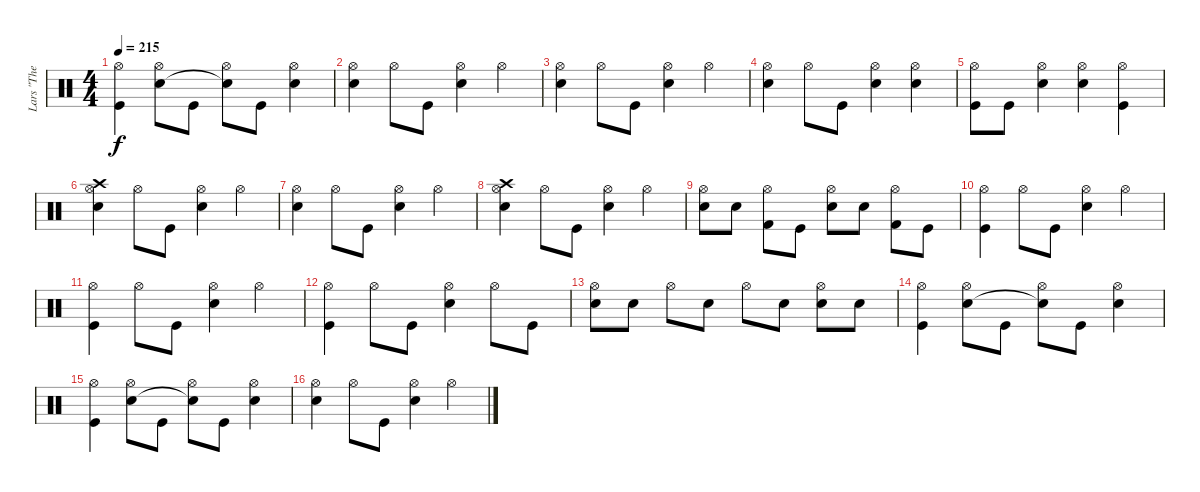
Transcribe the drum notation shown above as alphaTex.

\track ("Lars \"The Antichrist\" Ulrich" "Lars \"The ") {instrument percussion}
\staff {score}
\articulation defaults
\ts (4 4)
\tempo 215
\clef neutral
\ks c
("Hi-Hat (open)" "Kick (hit)").4{dy f} ("Hi-Hat (open)" "Electric Snare (hit)").8 "Kick (hit)".8 ("Hi-Hat (open)" "Snare (hit)"{t}).8 "Kick (hit)".8 ("Hi-Hat (open)" "Electric Snare (hit)").4 |
("Hi-Hat (open)" "Electric Snare (hit)").4 "Hi-Hat (open)".8 "Kick (hit)".8 ("Hi-Hat (open)" "Electric Snare (hit)").4 "Hi-Hat (open)".4 |
("Hi-Hat (open)" "Electric Snare (hit)").4 "Hi-Hat (open)".8 "Kick (hit)".8 ("Hi-Hat (open)" "Electric Snare (hit)").4 "Hi-Hat (open)".4 |
("Hi-Hat (open)" "Electric Snare (hit)").4 "Hi-Hat (open)".8 "Kick (hit)".8 ("Hi-Hat (open)" "Electric Snare (hit)").4 ("Hi-Hat (open)" "Electric Snare (hit)").4 |
("Hi-Hat (open)" "Kick (hit)").8 "Kick (hit)".8 ("Hi-Hat (open)" "Electric Snare (hit)").4 ("Hi-Hat (open)" "Electric Snare (hit)").4 ("Hi-Hat (open)" "Kick (hit)").4 |
("Hi-Hat (open)" "Crash high (hit)" "Electric Snare (hit)").4 "Hi-Hat (open)".8 "Kick (hit)".8 ("Hi-Hat (open)" "Electric Snare (hit)").4 "Hi-Hat (open)".4 |
("Hi-Hat (open)" "Electric Snare (hit)").4 "Hi-Hat (open)".8 "Kick (hit)".8 ("Hi-Hat (open)" "Electric Snare (hit)").4 "Hi-Hat (open)".4 |
("Hi-Hat (open)" "Crash high (hit)" "Electric Snare (hit)").4 "Hi-Hat (open)".8 "Kick (hit)".8 ("Hi-Hat (open)" "Electric Snare (hit)").4 "Hi-Hat (open)".4 |
("Hi-Hat (open)" "Electric Snare (hit)").8 "Electric Snare (hit)".8 ("Hi-Hat (open)" "Kick (hit) 2").8 "Kick (hit)".8 ("Hi-Hat (open)" "Electric Snare (hit)").8 "Electric Snare (hit)".8 ("Hi-Hat (open)" "Kick (hit) 2").8 "Kick (hit)".8 |
("Hi-Hat (open)" "Kick (hit)").4 "Hi-Hat (open)".8 "Kick (hit)".8 ("Hi-Hat (open)" "Electric Snare (hit)").4 "Hi-Hat (open)".4 |
("Hi-Hat (open)" "Kick (hit)").4 "Hi-Hat (open)".8 "Kick (hit)".8 ("Hi-Hat (open)" "Electric Snare (hit)").4 "Hi-Hat (open)".4 |
("Hi-Hat (open)" "Kick (hit)").4 "Hi-Hat (open)".8 "Kick (hit)".8 ("Hi-Hat (open)" "Electric Snare (hit)").4 "Hi-Hat (open)".8 "Kick (hit)".8 |
("Hi-Hat (open)" "Electric Snare (hit)").8 "Electric Snare (hit)".8 "Hi-Hat (open)".8 "Electric Snare (hit)".8 "Hi-Hat (open)".8 "Electric Snare (hit)".8 ("Hi-Hat (open)" "Electric Snare (hit)").8 "Electric Snare (hit)".8 |
("Hi-Hat (open)" "Kick (hit)").4 ("Hi-Hat (open)" "Electric Snare (hit)").8 "Kick (hit)".8 ("Hi-Hat (open)" "Snare (hit)"{t}).8 "Kick (hit)".8 ("Hi-Hat (open)" "Electric Snare (hit)").4 |
("Hi-Hat (open)" "Kick (hit)").4 ("Hi-Hat (open)" "Electric Snare (hit)").8 "Kick (hit)".8 ("Hi-Hat (open)" "Snare (hit)"{t}).8 "Kick (hit)".8 ("Hi-Hat (open)" "Electric Snare (hit)").4 |
("Hi-Hat (open)" "Electric Snare (hit)").4 "Hi-Hat (open)".8 "Kick (hit)".8 ("Hi-Hat (open)" "Electric Snare (hit)").4 "Hi-Hat (open)".4
